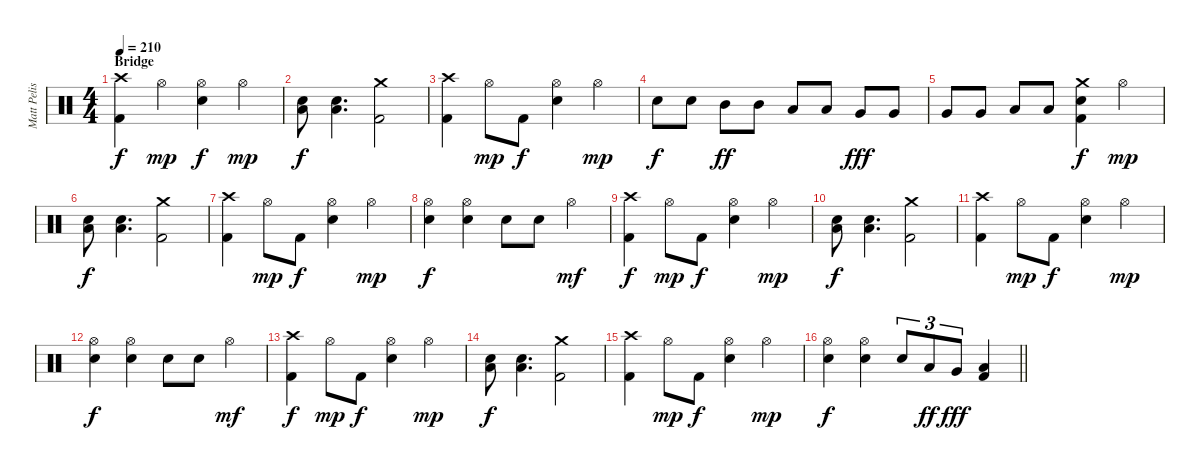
\track ("Matt Pelissier" "Matt Pelis") {instrument percussion}
\staff {score}
\articulation defaults
\ts (4 4)
\section ("" "Bridge")
\tempo 210
\clef neutral
\ks c
("Crash high (hit)" "Kick (hit) 2").4{dy f} "Hi-Hat (open)".4{dy mp} ("Hi-Hat (open)" "Snare (hit) 2").4{dy f} "Hi-Hat (open)".4{dy mp} |
("Low Tom (hit)" "Snare (hit) 2").8{dy f} ("Low Tom (hit)" "Snare (hit) 2").4{d} ("Crash medium (hit)" "Kick (hit) 2").2 |
("Crash high (hit)" "Kick (hit) 2").4 "Hi-Hat (open)".8{dy mp} "Kick (hit) 2".8{dy f} ("Hi-Hat (open)" "Snare (hit) 2").4 "Hi-Hat (open)".4{dy mp} |
"Snare (hit) 2".8{dy f} "Snare (hit) 2".8 "Mid Tom (hit)".8{dy ff} "Mid Tom (hit)".8 "Low Tom (hit)".8 "Low Tom (hit)".8 "Very Low Tom (hit)".8{dy fff} "Very Low Tom (hit)".8 |
"Very Low Tom (hit)".8 "Very Low Tom (hit)".8 "Low Floor Tom (hit)".8 "Low Floor Tom (hit)".8 ("Crash medium (hit)" "Snare (hit) 2" "Kick (hit) 2").4{dy f} "Hi-Hat (open)".4{dy mp} |
("Low Tom (hit)" "Snare (hit) 2").8{dy f} ("Low Tom (hit)" "Snare (hit) 2").4{d} ("Crash medium (hit)" "Kick (hit) 2").2 |
("Crash high (hit)" "Kick (hit) 2").4 "Hi-Hat (open)".8{dy mp} "Kick (hit) 2".8{dy f} ("Hi-Hat (open)" "Snare (hit) 2").4 "Hi-Hat (open)".4{dy mp} |
("Hi-Hat (open)" "Snare (hit) 2").4{dy f} ("Hi-Hat (open)" "Snare (hit) 2").4 "Snare (hit) 2".8 "Snare (hit) 2".8 "Hi-Hat (open)".4{dy mf} |
("Crash high (hit)" "Kick (hit) 2").4{dy f} "Hi-Hat (open)".8{dy mp} "Kick (hit) 2".8{dy f} ("Hi-Hat (open)" "Snare (hit) 2").4 "Hi-Hat (open)".4{dy mp} |
("Low Tom (hit)" "Snare (hit) 2").8{dy f} ("Low Tom (hit)" "Snare (hit) 2").4{d} ("Crash medium (hit)" "Kick (hit) 2").2 |
("Crash high (hit)" "Kick (hit) 2").4 "Hi-Hat (open)".8{dy mp} "Kick (hit) 2".8{dy f} ("Hi-Hat (open)" "Snare (hit) 2").4 "Hi-Hat (open)".4{dy mp} |
("Hi-Hat (open)" "Snare (hit) 2").4{dy f} ("Hi-Hat (open)" "Snare (hit) 2").4 "Snare (hit) 2".8 "Snare (hit) 2".8 "Hi-Hat (open)".4{dy mf} |
("Crash high (hit)" "Kick (hit) 2").4{dy f} "Hi-Hat (open)".8{dy mp} "Kick (hit) 2".8{dy f} ("Hi-Hat (open)" "Snare (hit) 2").4 "Hi-Hat (open)".4{dy mp} |
("Low Tom (hit)" "Snare (hit) 2").8{dy f} ("Low Tom (hit)" "Snare (hit) 2").4{d} ("Crash medium (hit)" "Kick (hit) 2").2 |
("Crash high (hit)" "Kick (hit) 2").4 "Hi-Hat (open)".8{dy mp} "Kick (hit) 2".8{dy f} ("Hi-Hat (open)" "Snare (hit) 2").4 "Hi-Hat (open)".4{dy mp} |
\barLineRight lightlight
("Hi-Hat (open)" "Snare (hit) 2").4{dy f} ("Hi-Hat (open)" "Snare (hit) 2").4 "Snare (hit) 2".8{tu (3 2)} "Low Tom (hit)".8{tu (3 2) dy ff} "Very Low Tom (hit)".8{tu (3 2) dy fff} ("Low Floor Tom (hit)" "Kick (hit) 2").4
